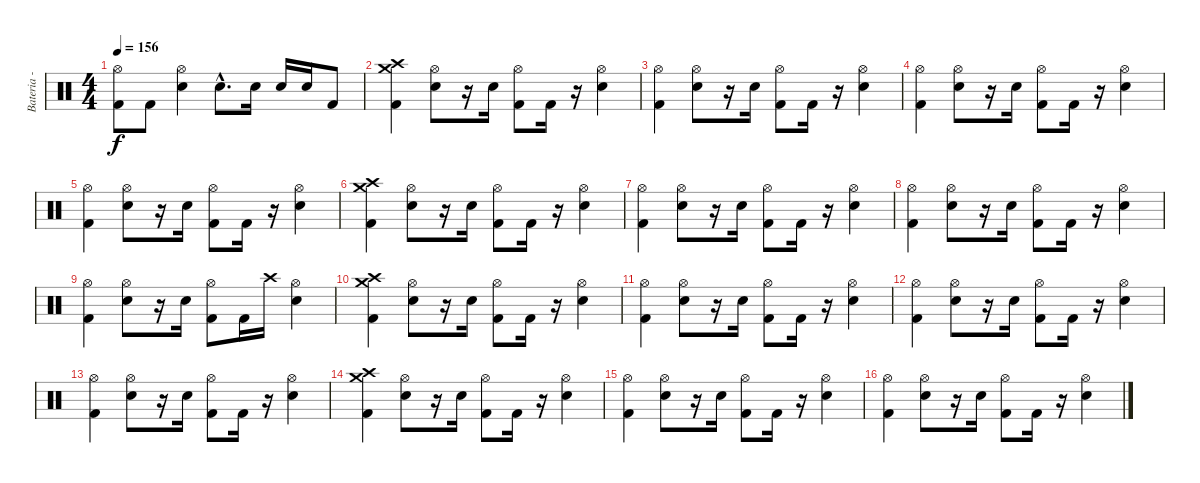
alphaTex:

\track ("Bateria - Kalú" "Bateria - ") {instrument percussion}
\staff {score}
\articulation defaults
\ts (4 4)
\tempo 156
\clef neutral
\ks c
("Hi-Hat (open)" "Kick (hit) 2").8{dy f} "Kick (hit) 2".8 ("Hi-Hat (open)" "Electric Snare (hit)").4 "Electric Snare (hit)"{hac}.8{d} "Electric Snare (hit)".16 "Electric Snare (hit)".16 "Electric Snare (hit)".16 "Kick (hit) 2".8 |
("Crash high (hit)" "Crash medium (hit)" "Kick (hit) 2").4 ("Hi-Hat (open)" "Electric Snare (hit)").8 r.16 "Electric Snare (hit)".16 ("Hi-Hat (open)" "Kick (hit) 2").8 "Kick (hit) 2".16 r.16 ("Hi-Hat (open)" "Electric Snare (hit)").4 |
("Hi-Hat (open)" "Kick (hit) 2").4 ("Hi-Hat (open)" "Electric Snare (hit)").8 r.16 "Electric Snare (hit)".16 ("Hi-Hat (open)" "Kick (hit) 2").8 "Kick (hit) 2".16 r.16 ("Hi-Hat (open)" "Electric Snare (hit)").4 |
("Hi-Hat (open)" "Kick (hit) 2").4 ("Hi-Hat (open)" "Electric Snare (hit)").8 r.16 "Electric Snare (hit)".16 ("Hi-Hat (open)" "Kick (hit) 2").8 "Kick (hit) 2".16 r.16 ("Hi-Hat (open)" "Electric Snare (hit)").4 |
("Hi-Hat (open)" "Kick (hit) 2").4 ("Hi-Hat (open)" "Electric Snare (hit)").8 r.16 "Electric Snare (hit)".16 ("Hi-Hat (open)" "Kick (hit) 2").8 "Kick (hit) 2".16 r.16 ("Hi-Hat (open)" "Electric Snare (hit)").4 |
("Crash high (hit)" "Crash medium (hit)" "Kick (hit) 2").4 ("Hi-Hat (open)" "Electric Snare (hit)").8 r.16 "Electric Snare (hit)".16 ("Hi-Hat (open)" "Kick (hit) 2").8 "Kick (hit) 2".16 r.16 ("Hi-Hat (open)" "Electric Snare (hit)").4 |
("Hi-Hat (open)" "Kick (hit) 2").4 ("Hi-Hat (open)" "Electric Snare (hit)").8 r.16 "Electric Snare (hit)".16 ("Hi-Hat (open)" "Kick (hit) 2").8 "Kick (hit) 2".16 r.16 ("Hi-Hat (open)" "Electric Snare (hit)").4 |
("Hi-Hat (open)" "Kick (hit) 2").4 ("Hi-Hat (open)" "Electric Snare (hit)").8 r.16 "Electric Snare (hit)".16 ("Hi-Hat (open)" "Kick (hit) 2").8 "Kick (hit) 2".16 r.16 ("Hi-Hat (open)" "Electric Snare (hit)").4 |
("Hi-Hat (open)" "Kick (hit) 2").4 ("Hi-Hat (open)" "Electric Snare (hit)").8 r.16 "Electric Snare (hit)".16 ("Hi-Hat (open)" "Kick (hit) 2").8 "Kick (hit) 2".16 "Crash high (hit)".16 ("Hi-Hat (open)" "Electric Snare (hit)").4 |
("Crash high (hit)" "Crash medium (hit)" "Kick (hit) 2").4 ("Hi-Hat (open)" "Electric Snare (hit)").8 r.16 "Electric Snare (hit)".16 ("Hi-Hat (open)" "Kick (hit) 2").8 "Kick (hit) 2".16 r.16 ("Hi-Hat (open)" "Electric Snare (hit)").4 |
("Hi-Hat (open)" "Kick (hit) 2").4 ("Hi-Hat (open)" "Electric Snare (hit)").8 r.16 "Electric Snare (hit)".16 ("Hi-Hat (open)" "Kick (hit) 2").8 "Kick (hit) 2".16 r.16 ("Hi-Hat (open)" "Electric Snare (hit)").4 |
("Hi-Hat (open)" "Kick (hit) 2").4 ("Hi-Hat (open)" "Electric Snare (hit)").8 r.16 "Electric Snare (hit)".16 ("Hi-Hat (open)" "Kick (hit) 2").8 "Kick (hit) 2".16 r.16 ("Hi-Hat (open)" "Electric Snare (hit)").4 |
("Hi-Hat (open)" "Kick (hit) 2").4 ("Hi-Hat (open)" "Electric Snare (hit)").8 r.16 "Electric Snare (hit)".16 ("Hi-Hat (open)" "Kick (hit) 2").8 "Kick (hit) 2".16 r.16 ("Hi-Hat (open)" "Electric Snare (hit)").4 |
("Crash high (hit)" "Crash medium (hit)" "Kick (hit) 2").4 ("Hi-Hat (open)" "Electric Snare (hit)").8 r.16 "Electric Snare (hit)".16 ("Hi-Hat (open)" "Kick (hit) 2").8 "Kick (hit) 2".16 r.16 ("Hi-Hat (open)" "Electric Snare (hit)").4 |
("Hi-Hat (open)" "Kick (hit) 2").4 ("Hi-Hat (open)" "Electric Snare (hit)").8 r.16 "Electric Snare (hit)".16 ("Hi-Hat (open)" "Kick (hit) 2").8 "Kick (hit) 2".16 r.16 ("Hi-Hat (open)" "Electric Snare (hit)").4 |
("Hi-Hat (open)" "Kick (hit) 2").4 ("Hi-Hat (open)" "Electric Snare (hit)").8 r.16 "Electric Snare (hit)".16 ("Hi-Hat (open)" "Kick (hit) 2").8 "Kick (hit) 2".16 r.16 ("Hi-Hat (open)" "Electric Snare (hit)").4
